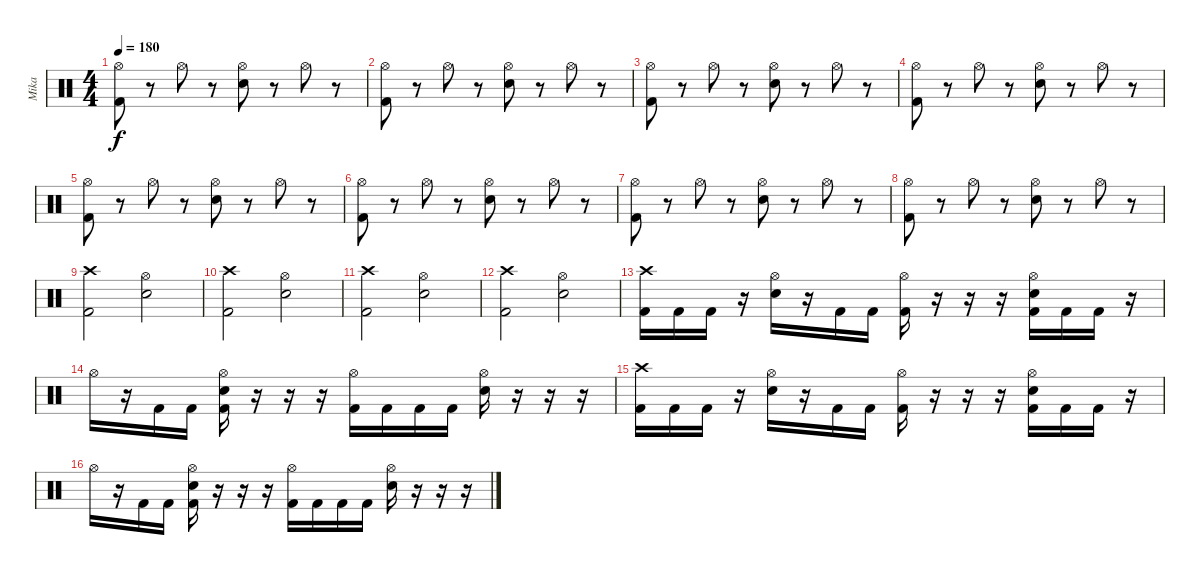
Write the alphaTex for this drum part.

\track ("Mika" "Mika") {instrument percussion}
\staff {score}
\articulation defaults
\ts (4 4)
\tempo 180
\clef neutral
\ks c
("Hi-Hat (open)" "Kick (hit) 2").8{dy f} r.8 "Hi-Hat (open)".8 r.8 ("Hi-Hat (open)" "Electric Snare (hit)").8 r.8 "Hi-Hat (open)".8 r.8 |
("Hi-Hat (open)" "Kick (hit) 2").8 r.8 "Hi-Hat (open)".8 r.8 ("Hi-Hat (open)" "Electric Snare (hit)").8 r.8 "Hi-Hat (open)".8 r.8 |
("Hi-Hat (open)" "Kick (hit) 2").8 r.8 "Hi-Hat (open)".8 r.8 ("Hi-Hat (open)" "Electric Snare (hit)").8 r.8 "Hi-Hat (open)".8 r.8 |
("Hi-Hat (open)" "Kick (hit) 2").8 r.8 "Hi-Hat (open)".8 r.8 ("Hi-Hat (open)" "Electric Snare (hit)").8 r.8 "Hi-Hat (open)".8 r.8 |
("Hi-Hat (open)" "Kick (hit) 2").8 r.8 "Hi-Hat (open)".8 r.8 ("Hi-Hat (open)" "Electric Snare (hit)").8 r.8 "Hi-Hat (open)".8 r.8 |
("Hi-Hat (open)" "Kick (hit) 2").8 r.8 "Hi-Hat (open)".8 r.8 ("Hi-Hat (open)" "Electric Snare (hit)").8 r.8 "Hi-Hat (open)".8 r.8 |
("Hi-Hat (open)" "Kick (hit) 2").8 r.8 "Hi-Hat (open)".8 r.8 ("Hi-Hat (open)" "Electric Snare (hit)").8 r.8 "Hi-Hat (open)".8 r.8 |
("Hi-Hat (open)" "Kick (hit) 2").8 r.8 "Hi-Hat (open)".8 r.8 ("Hi-Hat (open)" "Electric Snare (hit)").8 r.8 "Hi-Hat (open)".8 r.8 |
("Crash high (hit)" "Kick (hit) 2").2 ("Hi-Hat (open)" "Electric Snare (hit)").2 |
("Crash high (hit)" "Kick (hit) 2").2 ("Hi-Hat (open)" "Electric Snare (hit)").2 |
("Crash high (hit)" "Kick (hit) 2").2 ("Hi-Hat (open)" "Electric Snare (hit)").2 |
("Crash high (hit)" "Kick (hit) 2").2 ("Hi-Hat (open)" "Electric Snare (hit)").2 |
("Crash high (hit)" "Kick (hit) 2").16 "Kick (hit) 2".16 "Kick (hit) 2".16 r.16 ("Hi-Hat (open)" "Electric Snare (hit)").16 r.16 "Kick (hit) 2".16 "Kick (hit) 2".16 ("Hi-Hat (open)" "Kick (hit) 2").16 r.16 r.16 r.16 ("Hi-Hat (open)" "Electric Snare (hit)" "Kick (hit) 2").16 "Kick (hit) 2".16 "Kick (hit) 2".16 r.16 |
"Hi-Hat (open)".16 r.16 "Kick (hit) 2".16 "Kick (hit) 2".16 ("Hi-Hat (open)" "Electric Snare (hit)" "Kick (hit) 2").16 r.16 r.16 r.16 ("Hi-Hat (open)" "Kick (hit) 2").16 "Kick (hit) 2".16 "Kick (hit) 2".16 "Kick (hit) 2".16 ("Hi-Hat (open)" "Electric Snare (hit)").16 r.16 r.16 r.16 |
("Crash high (hit)" "Kick (hit) 2").16 "Kick (hit) 2".16 "Kick (hit) 2".16 r.16 ("Hi-Hat (open)" "Electric Snare (hit)").16 r.16 "Kick (hit) 2".16 "Kick (hit) 2".16 ("Hi-Hat (open)" "Kick (hit) 2").16 r.16 r.16 r.16 ("Hi-Hat (open)" "Electric Snare (hit)" "Kick (hit) 2").16 "Kick (hit) 2".16 "Kick (hit) 2".16 r.16 |
"Hi-Hat (open)".16 r.16 "Kick (hit) 2".16 "Kick (hit) 2".16 ("Hi-Hat (open)" "Electric Snare (hit)" "Kick (hit) 2").16 r.16 r.16 r.16 ("Hi-Hat (open)" "Kick (hit) 2").16 "Kick (hit) 2".16 "Kick (hit) 2".16 "Kick (hit) 2".16 ("Hi-Hat (open)" "Electric Snare (hit)").16 r.16 r.16 r.16
